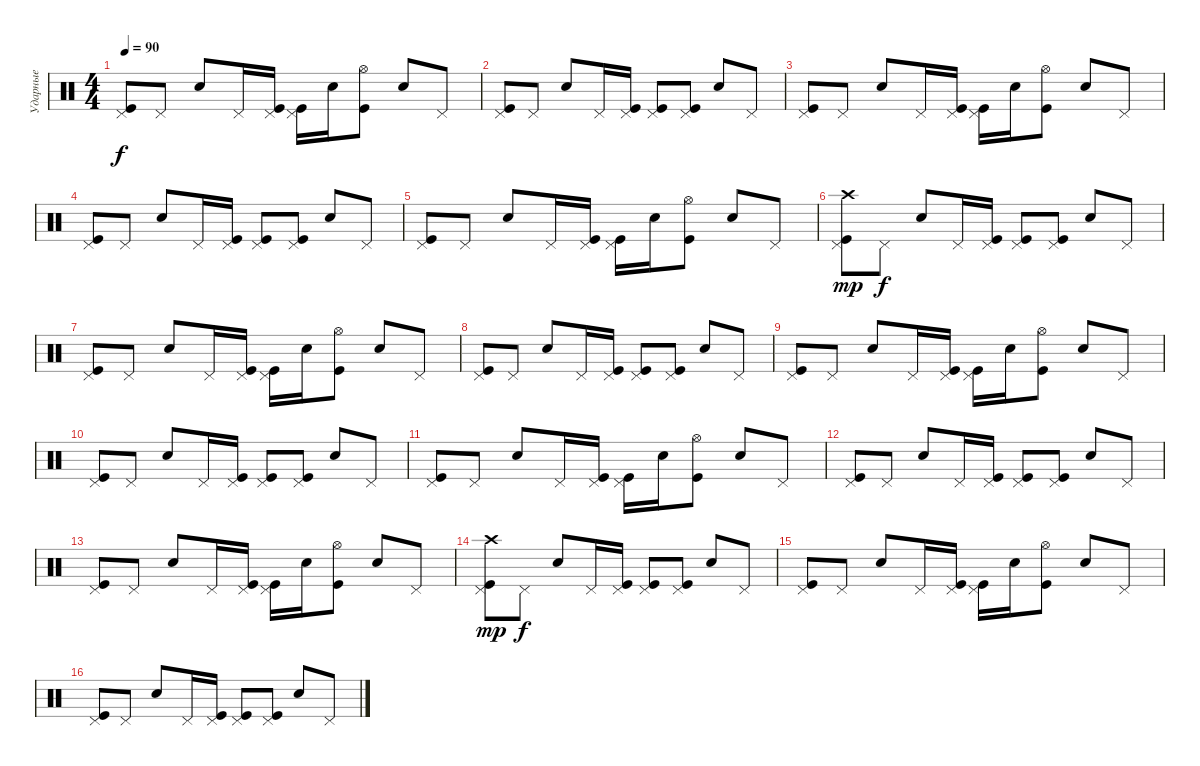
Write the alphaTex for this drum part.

\track ("Ударные" "Ударные") {instrument percussion}
\staff {score}
\articulation defaults
\ts (4 4)
\tempo 90
\clef neutral
\ks c
("Kick (hit)" "Pedal Hi-Hat (hit)").8{dy f} "Pedal Hi-Hat (hit)".8 "Electric Snare (hit)".8 "Pedal Hi-Hat (hit)".16 ("Kick (hit)" "Pedal Hi-Hat (hit)").16 ("Kick (hit)" "Pedal Hi-Hat (hit)").16 "Electric Snare (hit)".16 ("Kick (hit)" "Hi-Hat (open)").8 "Electric Snare (hit)".8 "Pedal Hi-Hat (hit)".8 |
("Kick (hit)" "Pedal Hi-Hat (hit)").8 "Pedal Hi-Hat (hit)".8 "Electric Snare (hit)".8 "Pedal Hi-Hat (hit)".16 ("Kick (hit)" "Pedal Hi-Hat (hit)").16 ("Kick (hit)" "Pedal Hi-Hat (hit)").8 ("Kick (hit)" "Pedal Hi-Hat (hit)").8 "Electric Snare (hit)".8 "Pedal Hi-Hat (hit)".8 |
("Kick (hit)" "Pedal Hi-Hat (hit)").8 "Pedal Hi-Hat (hit)".8 "Electric Snare (hit)".8 "Pedal Hi-Hat (hit)".16 ("Kick (hit)" "Pedal Hi-Hat (hit)").16 ("Kick (hit)" "Pedal Hi-Hat (hit)").16 "Electric Snare (hit)".16 ("Kick (hit)" "Hi-Hat (open)").8 "Electric Snare (hit)".8 "Pedal Hi-Hat (hit)".8 |
("Kick (hit)" "Pedal Hi-Hat (hit)").8 "Pedal Hi-Hat (hit)".8 "Electric Snare (hit)".8 "Pedal Hi-Hat (hit)".16 ("Kick (hit)" "Pedal Hi-Hat (hit)").16 ("Kick (hit)" "Pedal Hi-Hat (hit)").8 ("Kick (hit)" "Pedal Hi-Hat (hit)").8 "Electric Snare (hit)".8 "Pedal Hi-Hat (hit)".8 |
("Kick (hit)" "Pedal Hi-Hat (hit)").8 "Pedal Hi-Hat (hit)".8 "Electric Snare (hit)".8 "Pedal Hi-Hat (hit)".16 ("Kick (hit)" "Pedal Hi-Hat (hit)").16 ("Kick (hit)" "Pedal Hi-Hat (hit)").16 "Electric Snare (hit)".16 ("Kick (hit)" "Hi-Hat (open)").8 "Electric Snare (hit)".8 "Pedal Hi-Hat (hit)".8 |
("Kick (hit)" "Pedal Hi-Hat (hit)" "Crash high (hit)").8{dy mp} "Pedal Hi-Hat (hit)".8{dy f} "Electric Snare (hit)".8 "Pedal Hi-Hat (hit)".16 ("Kick (hit)" "Pedal Hi-Hat (hit)").16 ("Kick (hit)" "Pedal Hi-Hat (hit)").8 ("Kick (hit)" "Pedal Hi-Hat (hit)").8 "Electric Snare (hit)".8 "Pedal Hi-Hat (hit)".8 |
("Kick (hit)" "Pedal Hi-Hat (hit)").8 "Pedal Hi-Hat (hit)".8 "Electric Snare (hit)".8 "Pedal Hi-Hat (hit)".16 ("Kick (hit)" "Pedal Hi-Hat (hit)").16 ("Kick (hit)" "Pedal Hi-Hat (hit)").16 "Electric Snare (hit)".16 ("Kick (hit)" "Hi-Hat (open)").8 "Electric Snare (hit)".8 "Pedal Hi-Hat (hit)".8 |
("Kick (hit)" "Pedal Hi-Hat (hit)").8 "Pedal Hi-Hat (hit)".8 "Electric Snare (hit)".8 "Pedal Hi-Hat (hit)".16 ("Kick (hit)" "Pedal Hi-Hat (hit)").16 ("Kick (hit)" "Pedal Hi-Hat (hit)").8 ("Kick (hit)" "Pedal Hi-Hat (hit)").8 "Electric Snare (hit)".8 "Pedal Hi-Hat (hit)".8 |
("Kick (hit)" "Pedal Hi-Hat (hit)").8 "Pedal Hi-Hat (hit)".8 "Electric Snare (hit)".8 "Pedal Hi-Hat (hit)".16 ("Kick (hit)" "Pedal Hi-Hat (hit)").16 ("Kick (hit)" "Pedal Hi-Hat (hit)").16 "Electric Snare (hit)".16 ("Kick (hit)" "Hi-Hat (open)").8 "Electric Snare (hit)".8 "Pedal Hi-Hat (hit)".8 |
("Kick (hit)" "Pedal Hi-Hat (hit)").8 "Pedal Hi-Hat (hit)".8 "Electric Snare (hit)".8 "Pedal Hi-Hat (hit)".16 ("Kick (hit)" "Pedal Hi-Hat (hit)").16 ("Kick (hit)" "Pedal Hi-Hat (hit)").8 ("Kick (hit)" "Pedal Hi-Hat (hit)").8 "Electric Snare (hit)".8 "Pedal Hi-Hat (hit)".8 |
("Kick (hit)" "Pedal Hi-Hat (hit)").8 "Pedal Hi-Hat (hit)".8 "Electric Snare (hit)".8 "Pedal Hi-Hat (hit)".16 ("Kick (hit)" "Pedal Hi-Hat (hit)").16 ("Kick (hit)" "Pedal Hi-Hat (hit)").16 "Electric Snare (hit)".16 ("Kick (hit)" "Hi-Hat (open)").8 "Electric Snare (hit)".8 "Pedal Hi-Hat (hit)".8 |
("Kick (hit)" "Pedal Hi-Hat (hit)").8 "Pedal Hi-Hat (hit)".8 "Electric Snare (hit)".8 "Pedal Hi-Hat (hit)".16 ("Kick (hit)" "Pedal Hi-Hat (hit)").16 ("Kick (hit)" "Pedal Hi-Hat (hit)").8 ("Kick (hit)" "Pedal Hi-Hat (hit)").8 "Electric Snare (hit)".8 "Pedal Hi-Hat (hit)".8 |
("Kick (hit)" "Pedal Hi-Hat (hit)").8 "Pedal Hi-Hat (hit)".8 "Electric Snare (hit)".8 "Pedal Hi-Hat (hit)".16 ("Kick (hit)" "Pedal Hi-Hat (hit)").16 ("Kick (hit)" "Pedal Hi-Hat (hit)").16 "Electric Snare (hit)".16 ("Kick (hit)" "Hi-Hat (open)").8 "Electric Snare (hit)".8 "Pedal Hi-Hat (hit)".8 |
("Kick (hit)" "Pedal Hi-Hat (hit)" "Crash high (hit)").8{dy mp} "Pedal Hi-Hat (hit)".8{dy f} "Electric Snare (hit)".8 "Pedal Hi-Hat (hit)".16 ("Kick (hit)" "Pedal Hi-Hat (hit)").16 ("Kick (hit)" "Pedal Hi-Hat (hit)").8 ("Kick (hit)" "Pedal Hi-Hat (hit)").8 "Electric Snare (hit)".8 "Pedal Hi-Hat (hit)".8 |
("Kick (hit)" "Pedal Hi-Hat (hit)").8 "Pedal Hi-Hat (hit)".8 "Electric Snare (hit)".8 "Pedal Hi-Hat (hit)".16 ("Kick (hit)" "Pedal Hi-Hat (hit)").16 ("Kick (hit)" "Pedal Hi-Hat (hit)").16 "Electric Snare (hit)".16 ("Kick (hit)" "Hi-Hat (open)").8 "Electric Snare (hit)".8 "Pedal Hi-Hat (hit)".8 |
("Kick (hit)" "Pedal Hi-Hat (hit)").8 "Pedal Hi-Hat (hit)".8 "Electric Snare (hit)".8 "Pedal Hi-Hat (hit)".16 ("Kick (hit)" "Pedal Hi-Hat (hit)").16 ("Kick (hit)" "Pedal Hi-Hat (hit)").8 ("Kick (hit)" "Pedal Hi-Hat (hit)").8 "Electric Snare (hit)".8 "Pedal Hi-Hat (hit)".8
